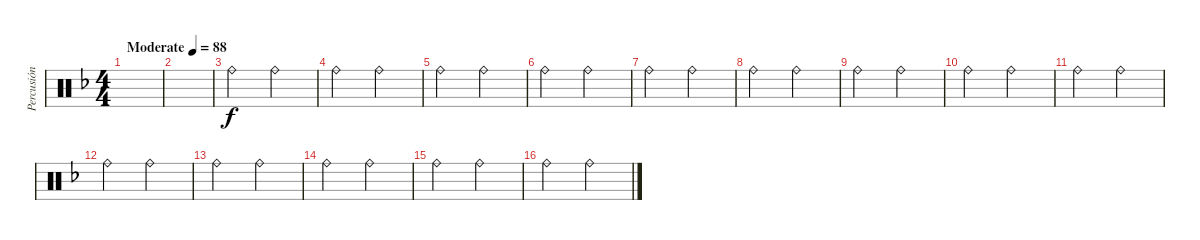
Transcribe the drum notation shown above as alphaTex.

\track ("Percusión" "Percusión") {instrument percussion}
\staff {score}
\articulation defaults
\ts (4 4)
\tempo (88 "Moderate")
\clef neutral
\ks f
|
|
"Ride (bell)".2 "Ride (bell)".2 |
"Ride (bell)".2 "Ride (bell)".2 |
"Ride (bell)".2 "Ride (bell)".2 |
"Ride (bell)".2 "Ride (bell)".2 |
"Ride (bell)".2 "Ride (bell)".2 |
"Ride (bell)".2 "Ride (bell)".2 |
"Ride (bell)".2 "Ride (bell)".2 |
"Ride (bell)".2 "Ride (bell)".2 |
"Ride (bell)".2 "Ride (bell)".2 |
"Ride (bell)".2 "Ride (bell)".2 |
"Ride (bell)".2 "Ride (bell)".2 |
"Ride (bell)".2 "Ride (bell)".2 |
"Ride (bell)".2 "Ride (bell)".2 |
"Ride (bell)".2 "Ride (bell)".2
